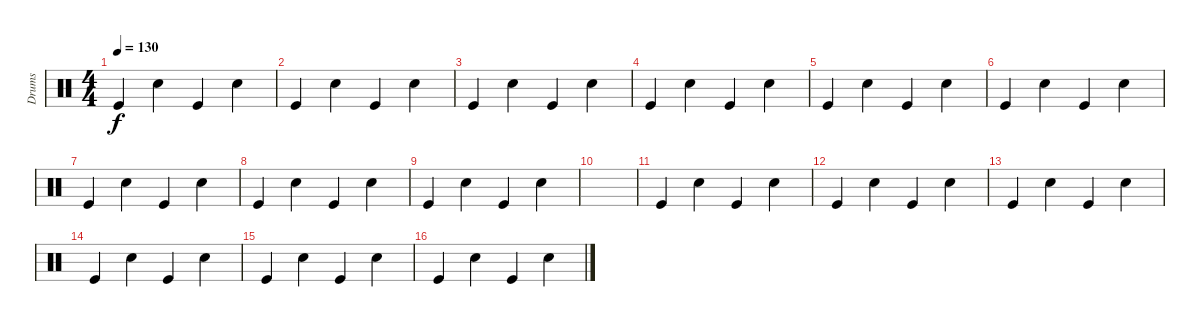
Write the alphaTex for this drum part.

\track ("Drums" "Drums") {instrument percussion}
\staff {score}
\articulation defaults
\ts (4 4)
\tempo 130
\clef neutral
\ks c "Kick (hit)".4{dy f} "Snare (hit) 2".4 "Kick (hit)".4 "Snare (hit) 2".4
|
"Kick (hit)".4 "Snare (hit) 2".4 "Kick (hit)".4 "Snare (hit) 2".4 |
"Kick (hit)".4 "Snare (hit) 2".4 "Kick (hit)".4 "Snare (hit) 2".4 |
"Kick (hit)".4 "Snare (hit) 2".4 "Kick (hit)".4 "Snare (hit) 2".4 |
"Kick (hit)".4 "Snare (hit) 2".4 "Kick (hit)".4 "Snare (hit) 2".4 |
"Kick (hit)".4 "Snare (hit) 2".4 "Kick (hit)".4 "Snare (hit) 2".4 |
"Kick (hit)".4 "Snare (hit) 2".4 "Kick (hit)".4 "Snare (hit) 2".4 |
"Kick (hit)".4 "Snare (hit) 2".4 "Kick (hit)".4 "Snare (hit) 2".4 |
"Kick (hit)".4 "Snare (hit) 2".4 "Kick (hit)".4 "Snare (hit) 2".4 |
|
"Kick (hit)".4 "Snare (hit) 2".4 "Kick (hit)".4 "Snare (hit) 2".4 |
"Kick (hit)".4 "Snare (hit) 2".4 "Kick (hit)".4 "Snare (hit) 2".4 |
"Kick (hit)".4 "Snare (hit) 2".4 "Kick (hit)".4 "Snare (hit) 2".4 |
"Kick (hit)".4 "Snare (hit) 2".4 "Kick (hit)".4 "Snare (hit) 2".4 |
"Kick (hit)".4 "Snare (hit) 2".4 "Kick (hit)".4 "Snare (hit) 2".4 |
"Kick (hit)".4 "Snare (hit) 2".4 "Kick (hit)".4 "Snare (hit) 2".4
